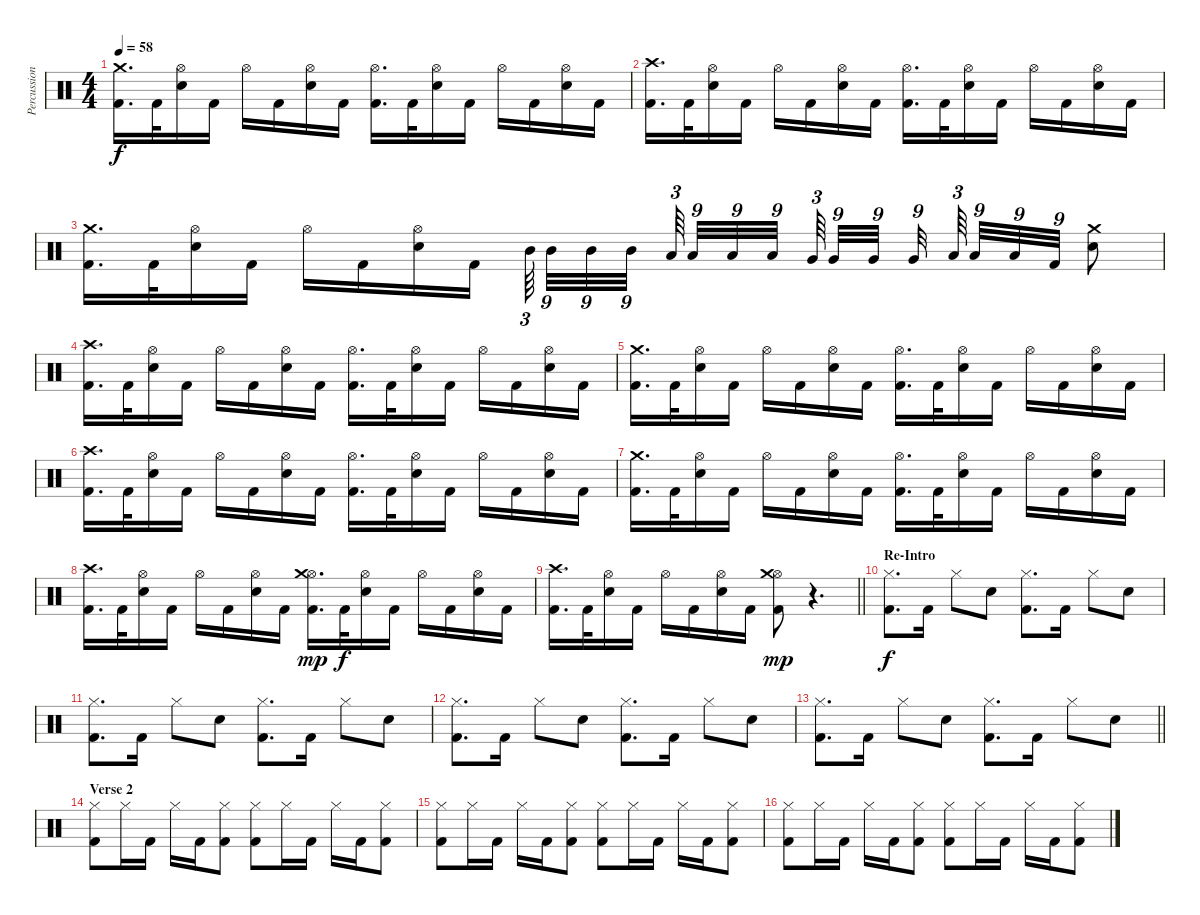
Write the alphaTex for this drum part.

\track ("Percussion 1" "Percussion") {instrument percussion}
\staff {score}
\articulation defaults
\ts (4 4)
\tempo 58
\clef neutral
\ks c
("Crash medium (hit)" "Kick (hit) 2").16{d dy f} "Kick (hit) 2".32 ("Hi-Hat (open)" "Snare (hit) 2").16 "Kick (hit) 2".16 "Hi-Hat (open)".16 "Kick (hit) 2".16 ("Hi-Hat (open)" "Snare (hit) 2").16 "Kick (hit) 2".16 ("Hi-Hat (open)" "Kick (hit) 2").16{d} "Kick (hit) 2".32 ("Hi-Hat (open)" "Snare (hit) 2").16 "Kick (hit) 2".16 "Hi-Hat (open)".16 "Kick (hit) 2".16 ("Hi-Hat (open)" "Snare (hit) 2").16 "Kick (hit) 2".16 |
("Crash high (hit)" "Kick (hit) 2").16{d} "Kick (hit) 2".32 ("Hi-Hat (open)" "Snare (hit) 2").16 "Kick (hit) 2".16 "Hi-Hat (open)".16 "Kick (hit) 2".16 ("Hi-Hat (open)" "Snare (hit) 2").16 "Kick (hit) 2".16 ("Hi-Hat (open)" "Kick (hit) 2").16{d} "Kick (hit) 2".32 ("Hi-Hat (open)" "Snare (hit) 2").16 "Kick (hit) 2".16 "Hi-Hat (open)".16 "Kick (hit) 2".16 ("Hi-Hat (open)" "Snare (hit) 2").16 "Kick (hit) 2".16 |
("Crash medium (hit)" "Kick (hit) 2").16{d} "Kick (hit) 2".32 ("Hi-Hat (open)" "Snare (hit) 2").16 "Kick (hit) 2".16 "Hi-Hat (open)".16 "Kick (hit) 2".16 ("Hi-Hat (open)" "Snare (hit) 2").16 "Kick (hit) 2".16 "Mid Tom (hit)".64{tu (3 2)} "Mid Tom (hit)".32{tu (9 8)} "Mid Tom (hit)".32{tu (9 8)} "Mid Tom (hit)".32{tu (9 8)} "Low Tom (hit)".64{tu (3 2)} "Low Tom (hit)".32{tu (9 8)} "Low Tom (hit)".32{tu (9 8)} "Low Tom (hit)".32{tu (9 8)} "Very Low Tom (hit)".64{tu (3 2)} "Very Low Tom (hit)".32{tu (9 8)} "Very Low Tom (hit)".32{tu (9 8)} "Very Low Tom (hit)".32{tu (9 8)} "Low Floor Tom (hit)".64{tu (3 2)} "Low Floor Tom (hit)".32{tu (9 8)} "Low Floor Tom (hit)".32{tu (9 8)} "Kick (hit) 2".32{tu (9 8)} ("Snare (hit) 2" "Crash medium (hit)").8 |
("Crash high (hit)" "Kick (hit) 2").16{d} "Kick (hit) 2".32 ("Hi-Hat (open)" "Snare (hit) 2").16 "Kick (hit) 2".16 "Hi-Hat (open)".16 "Kick (hit) 2".16 ("Hi-Hat (open)" "Snare (hit) 2").16 "Kick (hit) 2".16 ("Hi-Hat (open)" "Kick (hit) 2").16{d} "Kick (hit) 2".32 ("Hi-Hat (open)" "Snare (hit) 2").16 "Kick (hit) 2".16 "Hi-Hat (open)".16 "Kick (hit) 2".16 ("Hi-Hat (open)" "Snare (hit) 2").16 "Kick (hit) 2".16 |
("Crash medium (hit)" "Kick (hit) 2").16{d} "Kick (hit) 2".32 ("Hi-Hat (open)" "Snare (hit) 2").16 "Kick (hit) 2".16 "Hi-Hat (open)".16 "Kick (hit) 2".16 ("Hi-Hat (open)" "Snare (hit) 2").16 "Kick (hit) 2".16 ("Hi-Hat (open)" "Kick (hit) 2").16{d} "Kick (hit) 2".32 ("Hi-Hat (open)" "Snare (hit) 2").16 "Kick (hit) 2".16 "Hi-Hat (open)".16 "Kick (hit) 2".16 ("Hi-Hat (open)" "Snare (hit) 2").16 "Kick (hit) 2".16 |
("Crash high (hit)" "Kick (hit) 2").16{d} "Kick (hit) 2".32 ("Hi-Hat (open)" "Snare (hit) 2").16 "Kick (hit) 2".16 "Hi-Hat (open)".16 "Kick (hit) 2".16 ("Hi-Hat (open)" "Snare (hit) 2").16 "Kick (hit) 2".16 ("Hi-Hat (open)" "Kick (hit) 2").16{d} "Kick (hit) 2".32 ("Hi-Hat (open)" "Snare (hit) 2").16 "Kick (hit) 2".16 "Hi-Hat (open)".16 "Kick (hit) 2".16 ("Hi-Hat (open)" "Snare (hit) 2").16 "Kick (hit) 2".16 |
("Crash medium (hit)" "Kick (hit) 2").16{d} "Kick (hit) 2".32 ("Hi-Hat (open)" "Snare (hit) 2").16 "Kick (hit) 2".16 "Hi-Hat (open)".16 "Kick (hit) 2".16 ("Hi-Hat (open)" "Snare (hit) 2").16 "Kick (hit) 2".16 ("Hi-Hat (open)" "Kick (hit) 2").16{d} "Kick (hit) 2".32 ("Hi-Hat (open)" "Snare (hit) 2").16 "Kick (hit) 2".16 "Hi-Hat (open)".16 "Kick (hit) 2".16 ("Hi-Hat (open)" "Snare (hit) 2").16 "Kick (hit) 2".16 |
("Crash high (hit)" "Kick (hit) 2").16{d} "Kick (hit) 2".32 ("Hi-Hat (open)" "Snare (hit) 2").16 "Kick (hit) 2".16 "Hi-Hat (open)".16 "Kick (hit) 2".16 ("Hi-Hat (open)" "Snare (hit) 2").16 "Kick (hit) 2".16 ("Hi-Hat (open)" "Crash medium (hit)" "Kick (hit) 2").16{d dy mp} "Kick (hit) 2".32{dy f} ("Hi-Hat (open)" "Snare (hit) 2").16 "Kick (hit) 2".16 "Hi-Hat (open)".16 "Kick (hit) 2".16 ("Hi-Hat (open)" "Snare (hit) 2").16 "Kick (hit) 2".16 |
\barLineRight lightlight
("Crash high (hit)" "Kick (hit) 2").16{d} "Kick (hit) 2".32 ("Hi-Hat (open)" "Snare (hit) 2").16 "Kick (hit) 2".16 "Hi-Hat (open)".16 "Kick (hit) 2".16 ("Hi-Hat (open)" "Snare (hit) 2").16 "Kick (hit) 2".16 ("Hi-Hat (open)" "Crash medium (hit)" "Kick (hit) 2").8{dy mp} r.4{d} |
\section ("" "Re-Intro")
("Hi-Hat (closed)" "Kick (hit) 2").8{d dy f} "Kick (hit) 2".16 "Hi-Hat (closed)".8 "Snare (hit) 2".8 ("Hi-Hat (closed)" "Kick (hit) 2").8{d} "Kick (hit) 2".16 "Hi-Hat (closed)".8 "Snare (hit) 2".8 |
("Hi-Hat (closed)" "Kick (hit) 2").8{d} "Kick (hit) 2".16 "Hi-Hat (closed)".8 "Snare (hit) 2".8 ("Hi-Hat (closed)" "Kick (hit) 2").8{d} "Kick (hit) 2".16 "Hi-Hat (closed)".8 "Snare (hit) 2".8 |
("Hi-Hat (closed)" "Kick (hit) 2").8{d} "Kick (hit) 2".16 "Hi-Hat (closed)".8 "Snare (hit) 2".8 ("Hi-Hat (closed)" "Kick (hit) 2").8{d} "Kick (hit) 2".16 "Hi-Hat (closed)".8 "Snare (hit) 2".8 |
\barLineRight lightlight
("Hi-Hat (closed)" "Kick (hit) 2").8{d} "Kick (hit) 2".16 "Hi-Hat (closed)".8 "Snare (hit) 2".8 ("Hi-Hat (closed)" "Kick (hit) 2").8{d} "Kick (hit) 2".16 "Hi-Hat (closed)".8 "Snare (hit) 2".8 |
\section ("" "Verse 2")
("Hi-Hat (closed)" "Kick (hit) 2").8 "Hi-Hat (closed)".16 "Kick (hit) 2".16 "Hi-Hat (closed)".16 "Kick (hit) 2".16 ("Hi-Hat (closed)" "Kick (hit) 2").8 ("Hi-Hat (closed)" "Kick (hit) 2").8 "Hi-Hat (closed)".16 "Kick (hit) 2".16 "Hi-Hat (closed)".16 "Kick (hit) 2".16 ("Hi-Hat (closed)" "Kick (hit) 2").8 |
("Hi-Hat (closed)" "Kick (hit) 2").8 "Hi-Hat (closed)".16 "Kick (hit) 2".16 "Hi-Hat (closed)".16 "Kick (hit) 2".16 ("Hi-Hat (closed)" "Kick (hit) 2").8 ("Hi-Hat (closed)" "Kick (hit) 2").8 "Hi-Hat (closed)".16 "Kick (hit) 2".16 "Hi-Hat (closed)".16 "Kick (hit) 2".16 ("Hi-Hat (closed)" "Kick (hit) 2").8 |
("Hi-Hat (closed)" "Kick (hit) 2").8 "Hi-Hat (closed)".16 "Kick (hit) 2".16 "Hi-Hat (closed)".16 "Kick (hit) 2".16 ("Hi-Hat (closed)" "Kick (hit) 2").8 ("Hi-Hat (closed)" "Kick (hit) 2").8 "Hi-Hat (closed)".16 "Kick (hit) 2".16 "Hi-Hat (closed)".16 "Kick (hit) 2".16 ("Hi-Hat (closed)" "Kick (hit) 2").8
